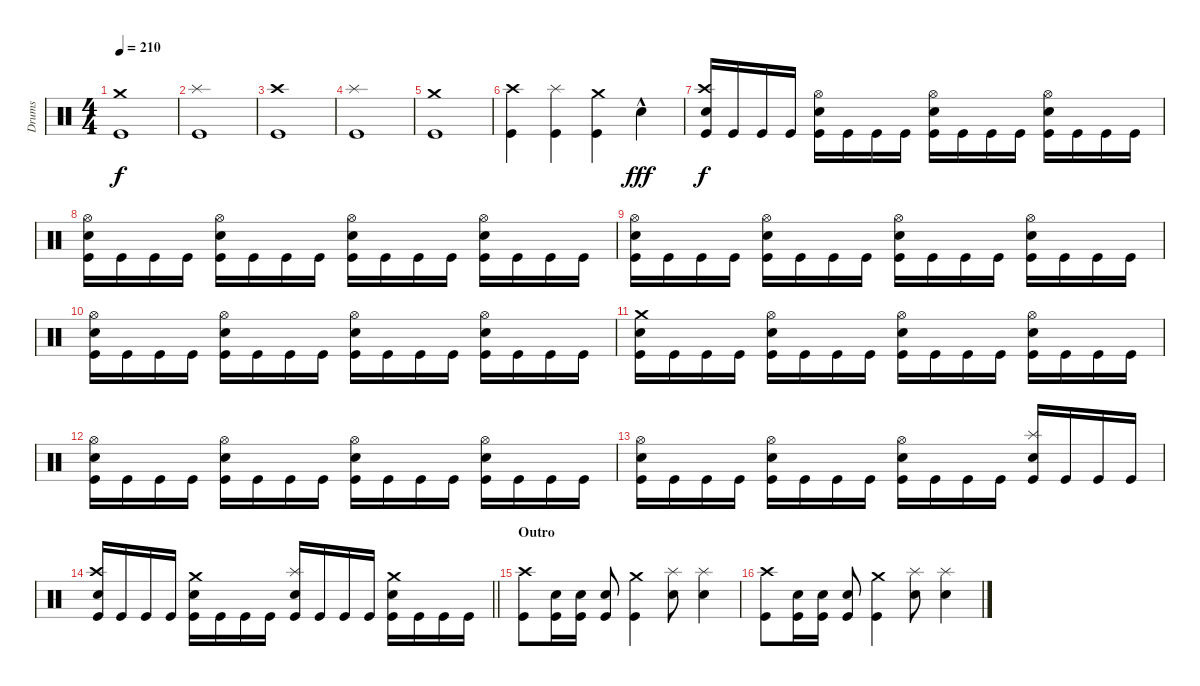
\track ("Drums" "Drums") {instrument percussion}
\staff {score}
\articulation defaults
\ts (4 4)
\tempo 210
\clef neutral
\ks c
("Crash medium (hit)" "Kick (hit)").1{dy f} |
("Splash (hit)" "Kick (hit)").1 |
("Crash high (hit)" "Kick (hit)").1 |
("Splash (hit)" "Kick (hit)").1 |
("Crash medium (hit)" "Kick (hit)").1 |
("Crash high (hit)" "Kick (hit)").4 ("Splash (hit)" "Kick (hit)").4 ("Crash medium (hit)" "Kick (hit)").4 "Electric Snare (hit)"{hac}.4{dy fff} |
("Crash high (hit)" "Electric Snare (hit)" "Kick (hit)").16{dy f} "Kick (hit)".16 "Kick (hit)".16 "Kick (hit)".16 ("Hi-Hat (open)" "Electric Snare (hit)" "Kick (hit)").16 "Kick (hit)".16 "Kick (hit)".16 "Kick (hit)".16 ("Hi-Hat (open)" "Electric Snare (hit)" "Kick (hit)").16 "Kick (hit)".16 "Kick (hit)".16 "Kick (hit)".16 ("Hi-Hat (open)" "Electric Snare (hit)" "Kick (hit)").16 "Kick (hit)".16 "Kick (hit)".16 "Kick (hit)".16 |
("Hi-Hat (open)" "Electric Snare (hit)" "Kick (hit)").16 "Kick (hit)".16 "Kick (hit)".16 "Kick (hit)".16 ("Hi-Hat (open)" "Electric Snare (hit)" "Kick (hit)").16 "Kick (hit)".16 "Kick (hit)".16 "Kick (hit)".16 ("Hi-Hat (open)" "Electric Snare (hit)" "Kick (hit)").16 "Kick (hit)".16 "Kick (hit)".16 "Kick (hit)".16 ("Hi-Hat (open)" "Electric Snare (hit)" "Kick (hit)").16 "Kick (hit)".16 "Kick (hit)".16 "Kick (hit)".16 |
("Hi-Hat (open)" "Electric Snare (hit)" "Kick (hit)").16 "Kick (hit)".16 "Kick (hit)".16 "Kick (hit)".16 ("Hi-Hat (open)" "Electric Snare (hit)" "Kick (hit)").16 "Kick (hit)".16 "Kick (hit)".16 "Kick (hit)".16 ("Hi-Hat (open)" "Electric Snare (hit)" "Kick (hit)").16 "Kick (hit)".16 "Kick (hit)".16 "Kick (hit)".16 ("Hi-Hat (open)" "Electric Snare (hit)" "Kick (hit)").16 "Kick (hit)".16 "Kick (hit)".16 "Kick (hit)".16 |
("Hi-Hat (open)" "Electric Snare (hit)" "Kick (hit)").16 "Kick (hit)".16 "Kick (hit)".16 "Kick (hit)".16 ("Hi-Hat (open)" "Electric Snare (hit)" "Kick (hit)").16 "Kick (hit)".16 "Kick (hit)".16 "Kick (hit)".16 ("Hi-Hat (open)" "Electric Snare (hit)" "Kick (hit)").16 "Kick (hit)".16 "Kick (hit)".16 "Kick (hit)".16 ("Hi-Hat (open)" "Electric Snare (hit)" "Kick (hit)").16 "Kick (hit)".16 "Kick (hit)".16 "Kick (hit)".16 |
("Crash medium (hit)" "Electric Snare (hit)" "Kick (hit)").16 "Kick (hit)".16 "Kick (hit)".16 "Kick (hit)".16 ("Hi-Hat (open)" "Electric Snare (hit)" "Kick (hit)").16 "Kick (hit)".16 "Kick (hit)".16 "Kick (hit)".16 ("Hi-Hat (open)" "Electric Snare (hit)" "Kick (hit)").16 "Kick (hit)".16 "Kick (hit)".16 "Kick (hit)".16 ("Hi-Hat (open)" "Electric Snare (hit)" "Kick (hit)").16 "Kick (hit)".16 "Kick (hit)".16 "Kick (hit)".16 |
("Hi-Hat (open)" "Electric Snare (hit)" "Kick (hit)").16 "Kick (hit)".16 "Kick (hit)".16 "Kick (hit)".16 ("Hi-Hat (open)" "Electric Snare (hit)" "Kick (hit)").16 "Kick (hit)".16 "Kick (hit)".16 "Kick (hit)".16 ("Hi-Hat (open)" "Electric Snare (hit)" "Kick (hit)").16 "Kick (hit)".16 "Kick (hit)".16 "Kick (hit)".16 ("Hi-Hat (open)" "Electric Snare (hit)" "Kick (hit)").16 "Kick (hit)".16 "Kick (hit)".16 "Kick (hit)".16 |
("Hi-Hat (open)" "Electric Snare (hit)" "Kick (hit)").16 "Kick (hit)".16 "Kick (hit)".16 "Kick (hit)".16 ("Hi-Hat (open)" "Electric Snare (hit)" "Kick (hit)").16 "Kick (hit)".16 "Kick (hit)".16 "Kick (hit)".16 ("Hi-Hat (open)" "Electric Snare (hit)" "Kick (hit)").16 "Kick (hit)".16 "Kick (hit)".16 "Kick (hit)".16 ("Splash (hit)" "Electric Snare (hit)" "Kick (hit)").16 "Kick (hit)".16 "Kick (hit)".16 "Kick (hit)".16 |
\barLineRight lightlight
("Crash high (hit)" "Electric Snare (hit)" "Kick (hit)").16 "Kick (hit)".16 "Kick (hit)".16 "Kick (hit)".16 ("Crash medium (hit)" "Electric Snare (hit)" "Kick (hit)").16 "Kick (hit)".16 "Kick (hit)".16 "Kick (hit)".16 ("Splash (hit)" "Electric Snare (hit)" "Kick (hit)").16 "Kick (hit)".16 "Kick (hit)".16 "Kick (hit)".16 ("Crash medium (hit)" "Electric Snare (hit)" "Kick (hit)").16 "Kick (hit)".16 "Kick (hit)".16 "Kick (hit)".16 |
\section ("" "Outro")
("Crash high (hit)" "Kick (hit)").8 ("Snare (hit) 2" "Kick (hit)").16 ("Snare (hit) 2" "Kick (hit)").16 ("Snare (hit) 2" "Kick (hit)").8 ("Crash medium (hit)" "Kick (hit)").4 ("Splash (hit)" "Electric Snare (hit)").8 ("Splash (hit)" "Electric Snare (hit)").4 |
("Crash high (hit)" "Kick (hit)").8 ("Snare (hit) 2" "Kick (hit)").16 ("Snare (hit) 2" "Kick (hit)").16 ("Snare (hit) 2" "Kick (hit)").8 ("Crash medium (hit)" "Kick (hit)").4 ("Splash (hit)" "Electric Snare (hit)").8 ("Splash (hit)" "Electric Snare (hit)").4
